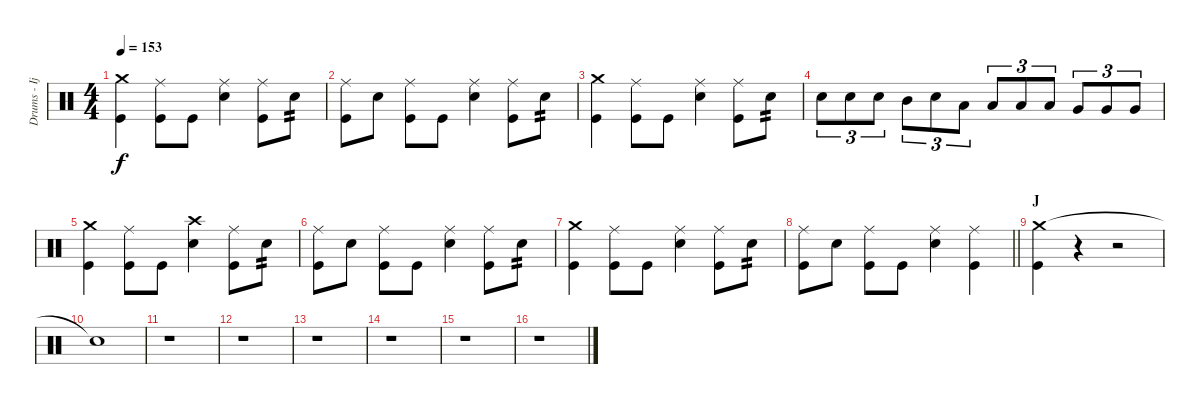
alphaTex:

\track ("Drums - Ijichi" "Drums - Ij") {instrument percussion}
\staff {score}
\articulation defaults
\ts (4 4)
\tempo 153
\clef neutral
\ks c
("Crash medium (hit)" "Kick (hit)").4{dy f} ("Ride (middle)" "Kick (hit)").8 "Kick (hit)".8 ("Ride (middle)" "Electric Snare (hit)").4 ("Ride (middle)" "Kick (hit)").8 "Electric Snare (hit)".8{tp 2} |
("Ride (middle)" "Kick (hit)").8 "Electric Snare (hit)".8 ("Ride (middle)" "Kick (hit)").8 "Kick (hit)".8 ("Ride (middle)" "Electric Snare (hit)").4 ("Ride (middle)" "Kick (hit)").8 "Electric Snare (hit)".8{tp 2} |
("Crash medium (hit)" "Kick (hit)").4 ("Ride (middle)" "Kick (hit)").8 "Kick (hit)".8 ("Ride (middle)" "Electric Snare (hit)").4 ("Ride (middle)" "Kick (hit)").8 "Electric Snare (hit)".8{tp 2} |
"Electric Snare (hit)".8{tu (3 2)} "Electric Snare (hit)".8{tu (3 2)} "Electric Snare (hit)".8{tu (3 2)} "Mid Tom (hit)".8{tu (3 2)} "Electric Snare (hit)".8{tu (3 2)} "Low Tom (hit)".8{tu (3 2)} "Low Tom (hit)".8{tu (3 2)} "Low Tom (hit)".8{tu (3 2)} "Low Tom (hit)".8{tu (3 2)} "Very Low Tom (hit)".8{tu (3 2)} "Very Low Tom (hit)".8{tu (3 2)} "Very Low Tom (hit)".8{tu (3 2)} |
("Crash medium (hit)" "Kick (hit)").4 ("Ride (middle)" "Kick (hit)").8 "Kick (hit)".8 ("Crash high (hit)" "Electric Snare (hit)").4 ("Ride (middle)" "Kick (hit)").8 "Electric Snare (hit)".8{tp 2} |
("Ride (middle)" "Kick (hit)").8 "Electric Snare (hit)".8 ("Ride (middle)" "Kick (hit)").8 "Kick (hit)".8 ("Ride (middle)" "Electric Snare (hit)").4 ("Ride (middle)" "Kick (hit)").8 "Electric Snare (hit)".8{tp 2} |
("Crash medium (hit)" "Kick (hit)").4 ("Ride (middle)" "Kick (hit)").8 "Kick (hit)".8 ("Ride (middle)" "Electric Snare (hit)").4 ("Ride (middle)" "Kick (hit)").8 "Electric Snare (hit)".8{tp 2} |
\barLineRight lightlight
("Ride (middle)" "Kick (hit)").8 "Electric Snare (hit)".8 ("Ride (middle)" "Kick (hit)").8 "Kick (hit)".8 ("Ride (middle)" "Electric Snare (hit)").4 ("Ride (middle)" "Kick (hit)").4 |
\section ("" "J")
("Crash medium (hit)" "Kick (hit)").4 r.4 r.2 |
"Snare (hit)"{t}.1 |
r.1 |
r.1 |
r.1 |
r.1 |
r.1 |
r.1
